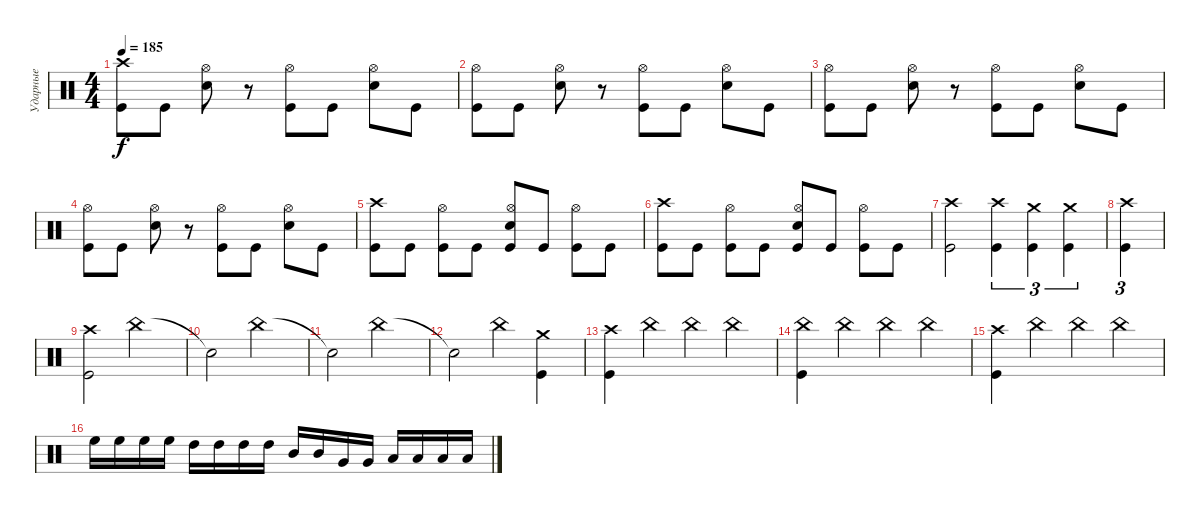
\track ("Ударные" "Ударные") {instrument percussion}
\staff {score}
\articulation defaults
\ts (4 4)
\tempo 185
\clef neutral
\ks c
("Crash high (hit)" "Kick (hit)").8{dy f} "Kick (hit)".8 ("Hi-Hat (open)" "Snare (hit) 2").8 r.8 ("Hi-Hat (open)" "Kick (hit)").8 "Kick (hit)".8 ("Hi-Hat (open)" "Snare (hit) 2").8 "Kick (hit)".8 |
("Hi-Hat (open)" "Kick (hit)").8 "Kick (hit)".8 ("Hi-Hat (open)" "Snare (hit) 2").8 r.8 ("Hi-Hat (open)" "Kick (hit)").8 "Kick (hit)".8 ("Hi-Hat (open)" "Snare (hit) 2").8 "Kick (hit)".8 |
("Hi-Hat (open)" "Kick (hit)").8 "Kick (hit)".8 ("Hi-Hat (open)" "Snare (hit) 2").8 r.8 ("Hi-Hat (open)" "Kick (hit)").8 "Kick (hit)".8 ("Hi-Hat (open)" "Snare (hit) 2").8 "Kick (hit)".8 |
("Hi-Hat (open)" "Kick (hit)").8 "Kick (hit)".8 ("Hi-Hat (open)" "Snare (hit) 2").8 r.8 ("Hi-Hat (open)" "Kick (hit)").8 "Kick (hit)".8 ("Hi-Hat (open)" "Snare (hit) 2").8 "Kick (hit)".8 |
("Crash high (hit)" "Kick (hit)").8 "Kick (hit)".8 ("Hi-Hat (open)" "Kick (hit)").8 "Kick (hit)".8 ("Hi-Hat (open)" "Kick (hit)" "Snare (hit) 2").8 "Kick (hit)".8 ("Hi-Hat (open)" "Kick (hit)").8 "Kick (hit)".8 |
("Crash high (hit)" "Kick (hit)").8 "Kick (hit)".8 ("Hi-Hat (open)" "Kick (hit)").8 "Kick (hit)".8 ("Hi-Hat (open)" "Kick (hit)" "Snare (hit) 2").8 "Kick (hit)".8 ("Hi-Hat (open)" "Kick (hit)").8 "Kick (hit)".8 |
("Kick (hit)" "Crash high (hit)").2 ("Kick (hit)" "Crash high (hit)").4{tu (3 2)} ("Kick (hit)" "Crash medium (hit)").4{tu (3 2)} ("Kick (hit)" "Crash medium (hit)").4{tu (3 2)} |
("Kick (hit)" "Crash high (hit)").4{tu (3 2)} |
("Crash high (hit)" "Kick (hit)").2 "China (hit)".2 |
"Snare (hit)"{t}.2 "China (hit)".2 |
"Snare (hit)"{t}.2 "China (hit)".2 |
"Snare (hit)"{t}.2 "China (hit)".4 ("Crash medium (hit)" "Kick (hit)").4 |
("Crash high (hit)" "Kick (hit)").4 "China (hit)".4 "China (hit)".4 "China (hit)".4 |
("China (hit)" "Kick (hit)").4 "China (hit)".4 "China (hit)".4 "China (hit)".4 |
("Crash high (hit)" "Kick (hit)").4 "China (hit)".4 "China (hit)".4 "China (hit)".4 |
"High Floor Tom (hit)".16 "High Floor Tom (hit)".16 "High Floor Tom (hit)".16 "High Floor Tom (hit)".16 "High Tom (hit)".16 "High Tom (hit)".16 "High Tom (hit)".16 "High Tom (hit)".16 "Mid Tom (hit)".16 "Mid Tom (hit)".16 "Very Low Tom (hit)".16 "Very Low Tom (hit)".16 "Low Floor Tom (hit)".16 "Low Floor Tom (hit)".16 "Low Floor Tom (hit)".16 "Low Floor Tom (hit)".16
